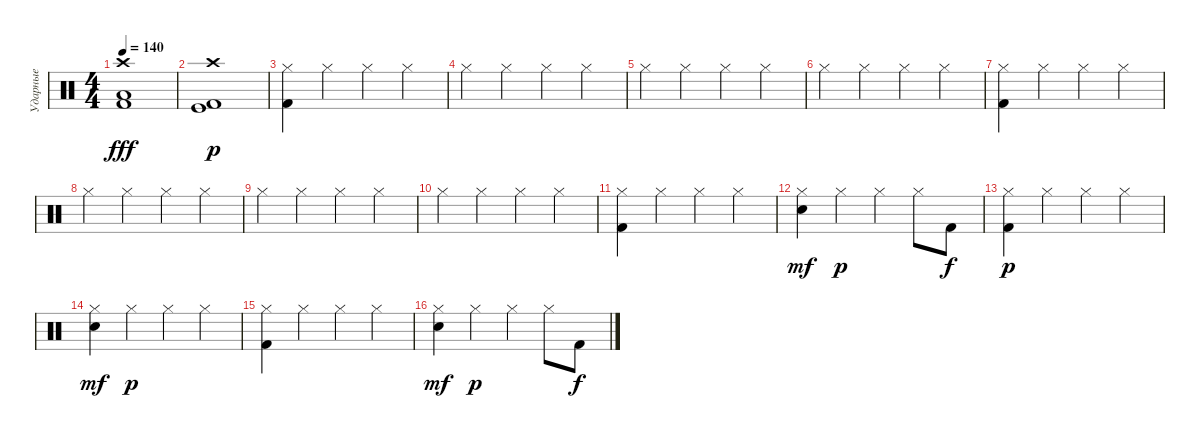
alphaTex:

\track ("Ударные" "Ударные") {instrument percussion}
\staff {score}
\articulation defaults
\ts (4 4)
\tempo 140
\clef neutral
\ks c
("Crash high (hit)" "Low Tom (hit)" "Kick (hit) 2").1{dy fff} |
("Crash high (hit)" "Kick (hit)" "Kick (hit) 2").1{dy p} |
("Hi-Hat (closed)" "Kick (hit) 2").4 "Hi-Hat (closed)".4 "Hi-Hat (closed)".4 "Hi-Hat (closed)".4 |
"Hi-Hat (closed)".4 "Hi-Hat (closed)".4 "Hi-Hat (closed)".4 "Hi-Hat (closed)".4 |
"Hi-Hat (closed)".4 "Hi-Hat (closed)".4 "Hi-Hat (closed)".4 "Hi-Hat (closed)".4 |
"Hi-Hat (closed)".4 "Hi-Hat (closed)".4 "Hi-Hat (closed)".4 "Hi-Hat (closed)".4 |
("Hi-Hat (closed)" "Kick (hit) 2").4 "Hi-Hat (closed)".4 "Hi-Hat (closed)".4 "Hi-Hat (closed)".4 |
"Hi-Hat (closed)".4 "Hi-Hat (closed)".4 "Hi-Hat (closed)".4 "Hi-Hat (closed)".4 |
"Hi-Hat (closed)".4 "Hi-Hat (closed)".4 "Hi-Hat (closed)".4 "Hi-Hat (closed)".4 |
"Hi-Hat (closed)".4 "Hi-Hat (closed)".4 "Hi-Hat (closed)".4 "Hi-Hat (closed)".4 |
("Hi-Hat (closed)" "Kick (hit) 2").4 "Hi-Hat (closed)".4 "Hi-Hat (closed)".4 "Hi-Hat (closed)".4 |
("Hi-Hat (closed)" "Electric Snare (hit)").4{dy mf} "Hi-Hat (closed)".4{dy p} "Hi-Hat (closed)".4 "Hi-Hat (closed)".8 "Kick (hit) 2".8{dy f} |
("Hi-Hat (closed)" "Kick (hit) 2").4{dy p} "Hi-Hat (closed)".4 "Hi-Hat (closed)".4 "Hi-Hat (closed)".4 |
("Hi-Hat (closed)" "Electric Snare (hit)").4{dy mf} "Hi-Hat (closed)".4{dy p} "Hi-Hat (closed)".4 "Hi-Hat (closed)".4 |
("Hi-Hat (closed)" "Kick (hit) 2").4 "Hi-Hat (closed)".4 "Hi-Hat (closed)".4 "Hi-Hat (closed)".4 |
("Hi-Hat (closed)" "Electric Snare (hit)").4{dy mf} "Hi-Hat (closed)".4{dy p} "Hi-Hat (closed)".4 "Hi-Hat (closed)".8 "Kick (hit) 2".8{dy f}
